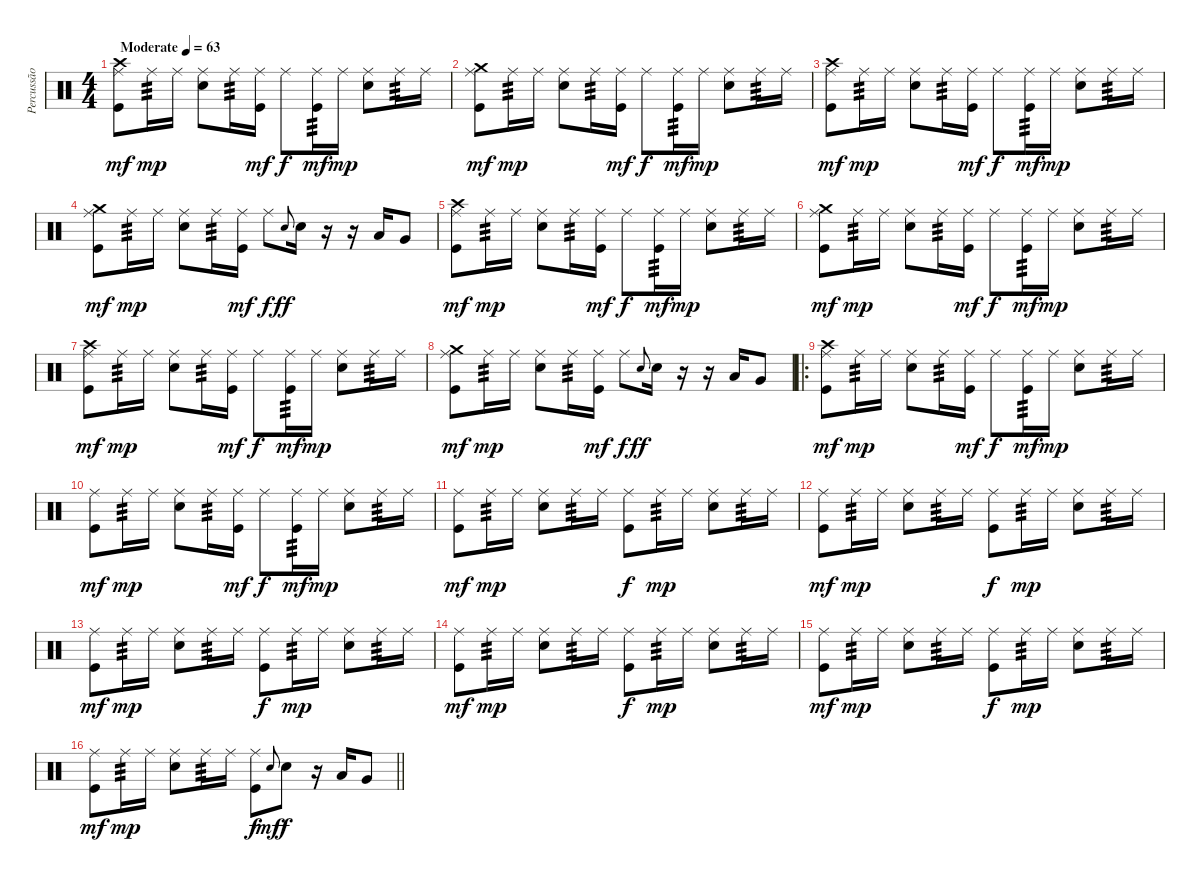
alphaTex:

\track ("Percussão" "Percussão") {instrument percussion}
\staff {score}
\articulation defaults
\ts (4 4)
\tempo (63 "Moderate")
\clef neutral
\ks c
("Ride (middle)" "Crash high (hit)" "Kick (hit)").8{dy mf} "Ride (middle)".16{tp 3 dy mp} "Ride (middle)".16 ("Ride (middle)" "Snare (hit) 2").8 "Ride (middle)".16{tp 3} ("Ride (middle)" "Kick (hit)").16{dy mf} "Ride (middle)".8{dy f} ("Ride (middle)" "Kick (hit)").16{tp 3 dy mf} "Ride (middle)".16{dy mp} ("Ride (middle)" "Snare (hit) 2").8 "Ride (middle)".16{tp 3} "Ride (middle)".16 |
("Ride (middle)" "Crash medium (hit)" "Kick (hit)").8{dy mf} "Ride (middle)".16{tp 3 dy mp} "Ride (middle)".16 ("Ride (middle)" "Snare (hit) 2").8 "Ride (middle)".16{tp 3} ("Ride (middle)" "Kick (hit)").16{dy mf} "Ride (middle)".8{dy f} ("Ride (middle)" "Kick (hit)").16{tp 3 dy mf} "Ride (middle)".16{dy mp} ("Ride (middle)" "Snare (hit) 2").8 "Ride (middle)".16{tp 3} "Ride (middle)".16 |
("Ride (middle)" "Crash high (hit)" "Kick (hit)").8{dy mf} "Ride (middle)".16{tp 3 dy mp} "Ride (middle)".16 ("Ride (middle)" "Snare (hit) 2").8 "Ride (middle)".16{tp 3} ("Ride (middle)" "Kick (hit)").16{dy mf} "Ride (middle)".8{dy f} ("Ride (middle)" "Kick (hit)").16{tp 3 dy mf} "Ride (middle)".16{dy mp} ("Ride (middle)" "Snare (hit) 2").8 "Ride (middle)".16{tp 3} "Ride (middle)".16 |
("Ride (middle)" "Crash medium (hit)" "Kick (hit)").8{dy mf} "Ride (middle)".16{tp 3 dy mp} "Ride (middle)".16 ("Ride (middle)" "Snare (hit) 2").8 "Ride (middle)".16{tp 3} ("Ride (middle)" "Kick (hit)").16{dy mf} "Ride (middle)".8{dy f} "Snare (hit) 2"{h x}.8{gr onbeat dy ff} "Snare (hit) 2".16 r.16 r.16 "Low Tom (hit)".16 "Very Low Tom (hit)".8 |
("Ride (middle)" "Crash high (hit)" "Kick (hit)").8{dy mf} "Ride (middle)".16{tp 3 dy mp} "Ride (middle)".16 ("Ride (middle)" "Snare (hit) 2").8 "Ride (middle)".16{tp 3} ("Ride (middle)" "Kick (hit)").16{dy mf} "Ride (middle)".8{dy f} ("Ride (middle)" "Kick (hit)").16{tp 3 dy mf} "Ride (middle)".16{dy mp} ("Ride (middle)" "Snare (hit) 2").8 "Ride (middle)".16{tp 3} "Ride (middle)".16 |
("Ride (middle)" "Crash medium (hit)" "Kick (hit)").8{dy mf} "Ride (middle)".16{tp 3 dy mp} "Ride (middle)".16 ("Ride (middle)" "Snare (hit) 2").8 "Ride (middle)".16{tp 3} ("Ride (middle)" "Kick (hit)").16{dy mf} "Ride (middle)".8{dy f} ("Ride (middle)" "Kick (hit)").16{tp 3 dy mf} "Ride (middle)".16{dy mp} ("Ride (middle)" "Snare (hit) 2").8 "Ride (middle)".16{tp 3} "Ride (middle)".16 |
("Ride (middle)" "Crash high (hit)" "Kick (hit)").8{dy mf} "Ride (middle)".16{tp 3 dy mp} "Ride (middle)".16 ("Ride (middle)" "Snare (hit) 2").8 "Ride (middle)".16{tp 3} ("Ride (middle)" "Kick (hit)").16{dy mf} "Ride (middle)".8{dy f} ("Ride (middle)" "Kick (hit)").16{tp 3 dy mf} "Ride (middle)".16{dy mp} ("Ride (middle)" "Snare (hit) 2").8 "Ride (middle)".16{tp 3} "Ride (middle)".16 |
("Ride (middle)" "Crash medium (hit)" "Kick (hit)").8{dy mf} "Ride (middle)".16{tp 3 dy mp} "Ride (middle)".16 ("Ride (middle)" "Snare (hit) 2").8 "Ride (middle)".16{tp 3} ("Ride (middle)" "Kick (hit)").16{dy mf} "Ride (middle)".8{dy f} "Snare (hit) 2"{h x}.8{gr onbeat dy ff} "Snare (hit) 2".16 r.16 r.16 "Low Tom (hit)".16 "Very Low Tom (hit)".8 |
\ro
("Ride (middle)" "Crash high (hit)" "Kick (hit)").8{dy mf} "Ride (middle)".16{tp 3 dy mp} "Ride (middle)".16 ("Ride (middle)" "Snare (hit) 2").8 "Ride (middle)".16{tp 3} ("Ride (middle)" "Kick (hit)").16{dy mf} "Ride (middle)".8{dy f} ("Ride (middle)" "Kick (hit)").16{tp 3 dy mf} "Ride (middle)".16{dy mp} ("Ride (middle)" "Snare (hit) 2").8 "Ride (middle)".16{tp 3} "Ride (middle)".16 |
("Ride (middle)" "Kick (hit)").8{dy mf} "Ride (middle)".16{tp 3 dy mp} "Ride (middle)".16 ("Ride (middle)" "Snare (hit) 2").8 "Ride (middle)".16{tp 3} ("Ride (middle)" "Kick (hit)").16{dy mf} "Ride (middle)".8{dy f} ("Ride (middle)" "Kick (hit)").16{tp 3 dy mf} "Ride (middle)".16{dy mp} ("Ride (middle)" "Snare (hit) 2").8 "Ride (middle)".16{tp 3} "Ride (middle)".16 |
("Ride (middle)" "Kick (hit)").8{dy mf} "Ride (middle)".16{tp 3 dy mp} "Ride (middle)".16 ("Ride (middle)" "Snare (hit) 2").8 "Ride (middle)".16{tp 3} "Ride (middle)".16 ("Ride (middle)" "Kick (hit)").8{dy f} "Ride (middle)".16{tp 3 dy mp} "Ride (middle)".16 ("Ride (middle)" "Snare (hit) 2").8 "Ride (middle)".16{tp 3} "Ride (middle)".16 |
("Ride (middle)" "Kick (hit)").8{dy mf} "Ride (middle)".16{tp 3 dy mp} "Ride (middle)".16 ("Ride (middle)" "Snare (hit) 2").8 "Ride (middle)".16{tp 3} "Ride (middle)".16 ("Ride (middle)" "Kick (hit)").8{dy f} "Ride (middle)".16{tp 3 dy mp} "Ride (middle)".16 ("Ride (middle)" "Snare (hit) 2").8 "Ride (middle)".16{tp 3} "Ride (middle)".16 |
("Ride (middle)" "Kick (hit)").8{dy mf} "Ride (middle)".16{tp 3 dy mp} "Ride (middle)".16 ("Ride (middle)" "Snare (hit) 2").8 "Ride (middle)".16{tp 3} "Ride (middle)".16 ("Ride (middle)" "Kick (hit)").8{dy f} "Ride (middle)".16{tp 3 dy mp} "Ride (middle)".16 ("Ride (middle)" "Snare (hit) 2").8 "Ride (middle)".16{tp 3} "Ride (middle)".16 |
("Ride (middle)" "Kick (hit)").8{dy mf} "Ride (middle)".16{tp 3 dy mp} "Ride (middle)".16 ("Ride (middle)" "Snare (hit) 2").8 "Ride (middle)".16{tp 3} "Ride (middle)".16 ("Ride (middle)" "Kick (hit)").8{dy f} "Ride (middle)".16{tp 3 dy mp} "Ride (middle)".16 ("Ride (middle)" "Snare (hit) 2").8 "Ride (middle)".16{tp 3} "Ride (middle)".16 |
("Ride (middle)" "Kick (hit)").8{dy mf} "Ride (middle)".16{tp 3 dy mp} "Ride (middle)".16 ("Ride (middle)" "Snare (hit) 2").8 "Ride (middle)".16{tp 3} "Ride (middle)".16 ("Ride (middle)" "Kick (hit)").8{dy f} "Ride (middle)".16{tp 3 dy mp} "Ride (middle)".16 ("Ride (middle)" "Snare (hit) 2").8 "Ride (middle)".16{tp 3} "Ride (middle)".16 |
\barLineRight lightlight
("Ride (middle)" "Kick (hit)").8{dy mf} "Ride (middle)".16{tp 3 dy mp} "Ride (middle)".16 ("Ride (middle)" "Snare (hit) 2").8 "Ride (middle)".16{tp 3} "Ride (middle)".16 ("Ride (middle)" "Kick (hit)").8{dy f} "Snare (hit) 2"{h}.8{gr onbeat dy mf} "Snare (hit) 2".8{dy f} r.16 "Low Tom (hit)".16 "Very Low Tom (hit)".8
